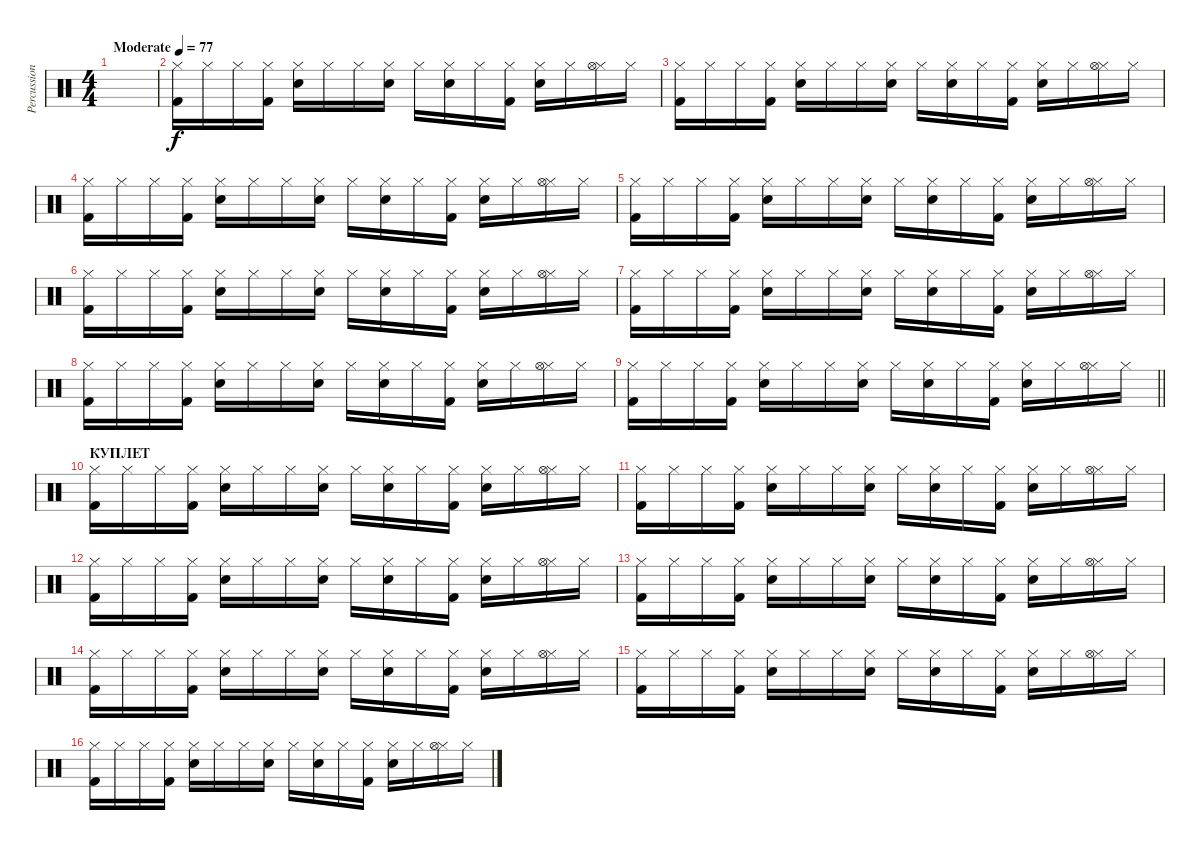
\track ("Percussion" "Percussion") {instrument percussion}
\staff {score}
\articulation defaults
\ts (4 4)
\tempo (77 "Moderate")
\clef neutral
\ks c
|
("Hi-Hat (closed)" "Kick (hit) 2").16 "Hi-Hat (closed)".16 "Hi-Hat (closed)".16 ("Hi-Hat (closed)" "Kick (hit) 2").16 ("Hi-Hat (closed)" "Electric Snare (hit)").16 "Hi-Hat (closed)".16 "Hi-Hat (closed)".16 ("Hi-Hat (closed)" "Electric Snare (hit)").16 "Hi-Hat (closed)".16 ("Hi-Hat (closed)" "Electric Snare (hit)").16 "Hi-Hat (closed)".16 ("Hi-Hat (closed)" "Kick (hit) 2").16 ("Hi-Hat (closed)" "Electric Snare (hit)").16 "Hi-Hat (closed)".16 ("Hi-Hat (closed)" "Hi-Hat (open)").16 "Hi-Hat (closed)".16 |
("Hi-Hat (closed)" "Kick (hit) 2").16 "Hi-Hat (closed)".16 "Hi-Hat (closed)".16 ("Hi-Hat (closed)" "Kick (hit) 2").16 ("Hi-Hat (closed)" "Electric Snare (hit)").16 "Hi-Hat (closed)".16 "Hi-Hat (closed)".16 ("Hi-Hat (closed)" "Electric Snare (hit)").16 "Hi-Hat (closed)".16 ("Hi-Hat (closed)" "Electric Snare (hit)").16 "Hi-Hat (closed)".16 ("Hi-Hat (closed)" "Kick (hit) 2").16 ("Hi-Hat (closed)" "Electric Snare (hit)").16 "Hi-Hat (closed)".16 ("Hi-Hat (closed)" "Hi-Hat (open)").16 "Hi-Hat (closed)".16 |
("Hi-Hat (closed)" "Kick (hit) 2").16 "Hi-Hat (closed)".16 "Hi-Hat (closed)".16 ("Hi-Hat (closed)" "Kick (hit) 2").16 ("Hi-Hat (closed)" "Electric Snare (hit)").16 "Hi-Hat (closed)".16 "Hi-Hat (closed)".16 ("Hi-Hat (closed)" "Electric Snare (hit)").16 "Hi-Hat (closed)".16 ("Hi-Hat (closed)" "Electric Snare (hit)").16 "Hi-Hat (closed)".16 ("Hi-Hat (closed)" "Kick (hit) 2").16 ("Hi-Hat (closed)" "Electric Snare (hit)").16 "Hi-Hat (closed)".16 ("Hi-Hat (closed)" "Hi-Hat (open)").16 "Hi-Hat (closed)".16 |
("Hi-Hat (closed)" "Kick (hit) 2").16 "Hi-Hat (closed)".16 "Hi-Hat (closed)".16 ("Hi-Hat (closed)" "Kick (hit) 2").16 ("Hi-Hat (closed)" "Electric Snare (hit)").16 "Hi-Hat (closed)".16 "Hi-Hat (closed)".16 ("Hi-Hat (closed)" "Electric Snare (hit)").16 "Hi-Hat (closed)".16 ("Hi-Hat (closed)" "Electric Snare (hit)").16 "Hi-Hat (closed)".16 ("Hi-Hat (closed)" "Kick (hit) 2").16 ("Hi-Hat (closed)" "Electric Snare (hit)").16 "Hi-Hat (closed)".16 ("Hi-Hat (closed)" "Hi-Hat (open)").16 "Hi-Hat (closed)".16 |
("Hi-Hat (closed)" "Kick (hit) 2").16 "Hi-Hat (closed)".16 "Hi-Hat (closed)".16 ("Hi-Hat (closed)" "Kick (hit) 2").16 ("Hi-Hat (closed)" "Electric Snare (hit)").16 "Hi-Hat (closed)".16 "Hi-Hat (closed)".16 ("Hi-Hat (closed)" "Electric Snare (hit)").16 "Hi-Hat (closed)".16 ("Hi-Hat (closed)" "Electric Snare (hit)").16 "Hi-Hat (closed)".16 ("Hi-Hat (closed)" "Kick (hit) 2").16 ("Hi-Hat (closed)" "Electric Snare (hit)").16 "Hi-Hat (closed)".16 ("Hi-Hat (closed)" "Hi-Hat (open)").16 "Hi-Hat (closed)".16 |
("Hi-Hat (closed)" "Kick (hit) 2").16 "Hi-Hat (closed)".16 "Hi-Hat (closed)".16 ("Hi-Hat (closed)" "Kick (hit) 2").16 ("Hi-Hat (closed)" "Electric Snare (hit)").16 "Hi-Hat (closed)".16 "Hi-Hat (closed)".16 ("Hi-Hat (closed)" "Electric Snare (hit)").16 "Hi-Hat (closed)".16 ("Hi-Hat (closed)" "Electric Snare (hit)").16 "Hi-Hat (closed)".16 ("Hi-Hat (closed)" "Kick (hit) 2").16 ("Hi-Hat (closed)" "Electric Snare (hit)").16 "Hi-Hat (closed)".16 ("Hi-Hat (closed)" "Hi-Hat (open)").16 "Hi-Hat (closed)".16 |
("Hi-Hat (closed)" "Kick (hit) 2").16 "Hi-Hat (closed)".16 "Hi-Hat (closed)".16 ("Hi-Hat (closed)" "Kick (hit) 2").16 ("Hi-Hat (closed)" "Electric Snare (hit)").16 "Hi-Hat (closed)".16 "Hi-Hat (closed)".16 ("Hi-Hat (closed)" "Electric Snare (hit)").16 "Hi-Hat (closed)".16 ("Hi-Hat (closed)" "Electric Snare (hit)").16 "Hi-Hat (closed)".16 ("Hi-Hat (closed)" "Kick (hit) 2").16 ("Hi-Hat (closed)" "Electric Snare (hit)").16 "Hi-Hat (closed)".16 ("Hi-Hat (closed)" "Hi-Hat (open)").16 "Hi-Hat (closed)".16 |
\barLineRight lightlight
("Hi-Hat (closed)" "Kick (hit) 2").16 "Hi-Hat (closed)".16 "Hi-Hat (closed)".16 ("Hi-Hat (closed)" "Kick (hit) 2").16 ("Hi-Hat (closed)" "Electric Snare (hit)").16 "Hi-Hat (closed)".16 "Hi-Hat (closed)".16 ("Hi-Hat (closed)" "Electric Snare (hit)").16 "Hi-Hat (closed)".16 ("Hi-Hat (closed)" "Electric Snare (hit)").16 "Hi-Hat (closed)".16 ("Hi-Hat (closed)" "Kick (hit) 2").16 ("Hi-Hat (closed)" "Electric Snare (hit)").16 "Hi-Hat (closed)".16 ("Hi-Hat (closed)" "Hi-Hat (open)").16 "Hi-Hat (closed)".16 |
\section ("" "КУПЛЕТ")
("Hi-Hat (closed)" "Kick (hit) 2").16 "Hi-Hat (closed)".16 "Hi-Hat (closed)".16 ("Hi-Hat (closed)" "Kick (hit) 2").16 ("Hi-Hat (closed)" "Electric Snare (hit)").16 "Hi-Hat (closed)".16 "Hi-Hat (closed)".16 ("Hi-Hat (closed)" "Electric Snare (hit)").16 "Hi-Hat (closed)".16 ("Hi-Hat (closed)" "Electric Snare (hit)").16 "Hi-Hat (closed)".16 ("Hi-Hat (closed)" "Kick (hit) 2").16 ("Hi-Hat (closed)" "Electric Snare (hit)").16 "Hi-Hat (closed)".16 ("Hi-Hat (closed)" "Hi-Hat (open)").16 "Hi-Hat (closed)".16 |
("Hi-Hat (closed)" "Kick (hit) 2").16 "Hi-Hat (closed)".16 "Hi-Hat (closed)".16 ("Hi-Hat (closed)" "Kick (hit) 2").16 ("Hi-Hat (closed)" "Electric Snare (hit)").16 "Hi-Hat (closed)".16 "Hi-Hat (closed)".16 ("Hi-Hat (closed)" "Electric Snare (hit)").16 "Hi-Hat (closed)".16 ("Hi-Hat (closed)" "Electric Snare (hit)").16 "Hi-Hat (closed)".16 ("Hi-Hat (closed)" "Kick (hit) 2").16 ("Hi-Hat (closed)" "Electric Snare (hit)").16 "Hi-Hat (closed)".16 ("Hi-Hat (closed)" "Hi-Hat (open)").16 "Hi-Hat (closed)".16 |
("Hi-Hat (closed)" "Kick (hit) 2").16 "Hi-Hat (closed)".16 "Hi-Hat (closed)".16 ("Hi-Hat (closed)" "Kick (hit) 2").16 ("Hi-Hat (closed)" "Electric Snare (hit)").16 "Hi-Hat (closed)".16 "Hi-Hat (closed)".16 ("Hi-Hat (closed)" "Electric Snare (hit)").16 "Hi-Hat (closed)".16 ("Hi-Hat (closed)" "Electric Snare (hit)").16 "Hi-Hat (closed)".16 ("Hi-Hat (closed)" "Kick (hit) 2").16 ("Hi-Hat (closed)" "Electric Snare (hit)").16 "Hi-Hat (closed)".16 ("Hi-Hat (closed)" "Hi-Hat (open)").16 "Hi-Hat (closed)".16 |
("Hi-Hat (closed)" "Kick (hit) 2").16 "Hi-Hat (closed)".16 "Hi-Hat (closed)".16 ("Hi-Hat (closed)" "Kick (hit) 2").16 ("Hi-Hat (closed)" "Electric Snare (hit)").16 "Hi-Hat (closed)".16 "Hi-Hat (closed)".16 ("Hi-Hat (closed)" "Electric Snare (hit)").16 "Hi-Hat (closed)".16 ("Hi-Hat (closed)" "Electric Snare (hit)").16 "Hi-Hat (closed)".16 ("Hi-Hat (closed)" "Kick (hit) 2").16 ("Hi-Hat (closed)" "Electric Snare (hit)").16 "Hi-Hat (closed)".16 ("Hi-Hat (closed)" "Hi-Hat (open)").16 "Hi-Hat (closed)".16 |
("Hi-Hat (closed)" "Kick (hit) 2").16 "Hi-Hat (closed)".16 "Hi-Hat (closed)".16 ("Hi-Hat (closed)" "Kick (hit) 2").16 ("Hi-Hat (closed)" "Electric Snare (hit)").16 "Hi-Hat (closed)".16 "Hi-Hat (closed)".16 ("Hi-Hat (closed)" "Electric Snare (hit)").16 "Hi-Hat (closed)".16 ("Hi-Hat (closed)" "Electric Snare (hit)").16 "Hi-Hat (closed)".16 ("Hi-Hat (closed)" "Kick (hit) 2").16 ("Hi-Hat (closed)" "Electric Snare (hit)").16 "Hi-Hat (closed)".16 ("Hi-Hat (closed)" "Hi-Hat (open)").16 "Hi-Hat (closed)".16 |
("Hi-Hat (closed)" "Kick (hit) 2").16 "Hi-Hat (closed)".16 "Hi-Hat (closed)".16 ("Hi-Hat (closed)" "Kick (hit) 2").16 ("Hi-Hat (closed)" "Electric Snare (hit)").16 "Hi-Hat (closed)".16 "Hi-Hat (closed)".16 ("Hi-Hat (closed)" "Electric Snare (hit)").16 "Hi-Hat (closed)".16 ("Hi-Hat (closed)" "Electric Snare (hit)").16 "Hi-Hat (closed)".16 ("Hi-Hat (closed)" "Kick (hit) 2").16 ("Hi-Hat (closed)" "Electric Snare (hit)").16 "Hi-Hat (closed)".16 ("Hi-Hat (closed)" "Hi-Hat (open)").16 "Hi-Hat (closed)".16 |
("Hi-Hat (closed)" "Kick (hit) 2").16 "Hi-Hat (closed)".16 "Hi-Hat (closed)".16 ("Hi-Hat (closed)" "Kick (hit) 2").16 ("Hi-Hat (closed)" "Electric Snare (hit)").16 "Hi-Hat (closed)".16 "Hi-Hat (closed)".16 ("Hi-Hat (closed)" "Electric Snare (hit)").16 "Hi-Hat (closed)".16 ("Hi-Hat (closed)" "Electric Snare (hit)").16 "Hi-Hat (closed)".16 ("Hi-Hat (closed)" "Kick (hit) 2").16 ("Hi-Hat (closed)" "Electric Snare (hit)").16 "Hi-Hat (closed)".16 ("Hi-Hat (closed)" "Hi-Hat (open)").16 "Hi-Hat (closed)".16
